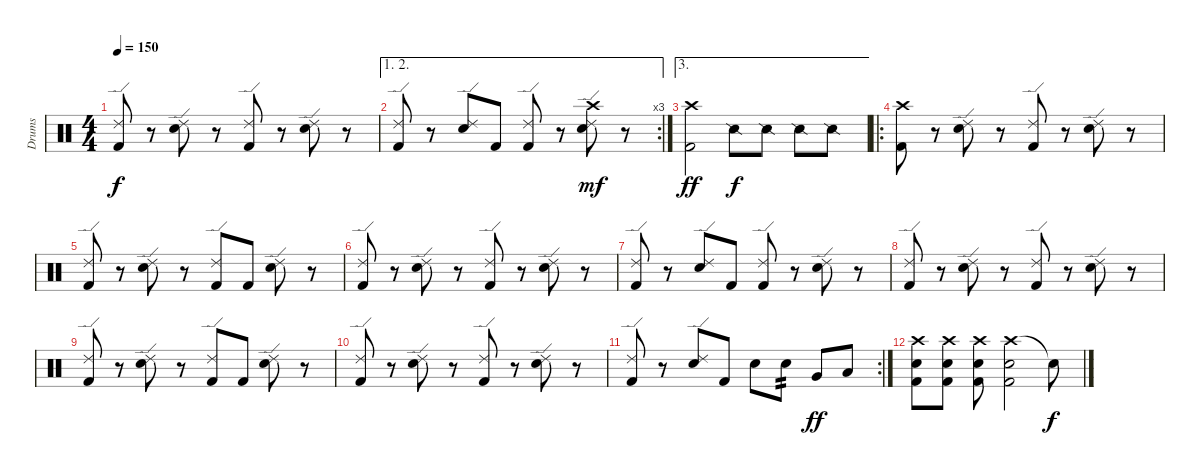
\track ("Drums" "Drums") {instrument percussion}
\staff {score}
\articulation defaults
\ts (4 4)
\tempo 150
\clef neutral
\ks c
("Ride (edge) 2" "Kick (hit) 2").8{dy f} r.8 ("Ride (edge) 2" "Snare (hit) 2").8 r.8 ("Ride (edge) 2" "Kick (hit) 2").8 r.8 ("Ride (edge) 2" "Snare (hit) 2").8 r.8 |
\ae (1 2)
\rc 3
("Ride (edge) 2" "Kick (hit) 2").8 r.8 ("Ride (edge) 2" "Snare (hit) 2").8 "Kick (hit) 2".8 ("Ride (edge) 2" "Kick (hit) 2").8 r.8 ("Crash high (hit)" "Ride (edge) 2" "Snare (hit) 2").8{dy mf} r.8 |
\ae 3
("Crash high (hit)" "Kick (hit) 2").2{dy ff} "Snare (side stick) 2".8{dy f} "Snare (side stick) 2".8 "Snare (side stick) 2".8 "Snare (side stick) 2".8 |
\ro
("Crash high (hit)" "Kick (hit) 2").8 r.8 ("Ride (edge) 2" "Snare (hit) 2").8 r.8 ("Ride (edge) 2" "Kick (hit) 2").8 r.8 ("Ride (edge) 2" "Snare (hit) 2").8 r.8 |
("Ride (edge) 2" "Kick (hit) 2").8 r.8 ("Ride (edge) 2" "Snare (hit) 2").8 r.8 ("Ride (edge) 2" "Kick (hit) 2").8 "Kick (hit) 2".8 ("Ride (edge) 2" "Snare (hit) 2").8 r.8 |
("Ride (edge) 2" "Kick (hit) 2").8 r.8 ("Ride (edge) 2" "Snare (hit) 2").8 r.8 ("Ride (edge) 2" "Kick (hit) 2").8 r.8 ("Ride (edge) 2" "Snare (hit) 2").8 r.8 |
("Ride (edge) 2" "Kick (hit) 2").8 r.8 ("Ride (edge) 2" "Snare (hit) 2").8 "Kick (hit) 2".8 ("Ride (edge) 2" "Kick (hit) 2").8 r.8 ("Ride (edge) 2" "Snare (hit) 2").8 r.8 |
("Ride (edge) 2" "Kick (hit) 2").8 r.8 ("Ride (edge) 2" "Snare (hit) 2").8 r.8 ("Ride (edge) 2" "Kick (hit) 2").8 r.8 ("Ride (edge) 2" "Snare (hit) 2").8 r.8 |
("Ride (edge) 2" "Kick (hit) 2").8 r.8 ("Ride (edge) 2" "Snare (hit) 2").8 r.8 ("Ride (edge) 2" "Kick (hit) 2").8 "Kick (hit) 2".8 ("Ride (edge) 2" "Snare (hit) 2").8 r.8 |
("Ride (edge) 2" "Kick (hit) 2").8 r.8 ("Ride (edge) 2" "Snare (hit) 2").8 r.8 ("Ride (edge) 2" "Kick (hit) 2").8 r.8 ("Ride (edge) 2" "Snare (hit) 2").8 r.8 |
\rc 2
("Ride (edge) 2" "Kick (hit) 2").8 r.8 ("Ride (edge) 2" "Snare (hit) 2").8 "Kick (hit) 2".8 "Snare (hit) 2".8 "Snare (hit) 2".8{tp 2} "Very Low Tom (hit)".8{dy ff} "Low Floor Tom (hit)".8 |
("Crash high (hit)" "Snare (hit) 2" "Kick (hit) 2").8 ("Crash high (hit)" "Snare (hit) 2" "Kick (hit) 2").8 ("Crash high (hit)" "Snare (hit) 2" "Kick (hit) 2").8 ("Crash high (hit)" "Snare (hit) 2" "Kick (hit) 2").2 "Snare (hit)"{t}.8{dy f}
